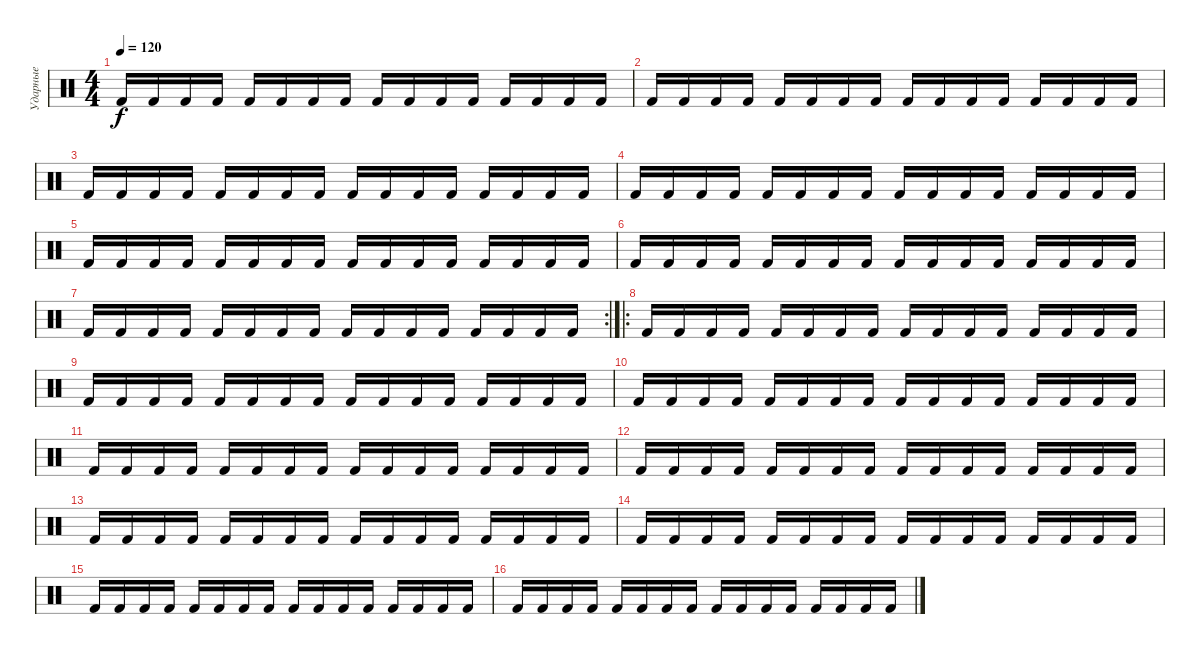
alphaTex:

\track ("Ударные" "Ударные") {instrument percussion}
\staff {score}
\articulation defaults
\ts (4 4)
\tempo 120
\clef neutral
\ks c "Kick (hit) 2".16{dy f} "Kick (hit) 2".16 "Kick (hit) 2".16 "Kick (hit) 2".16 "Kick (hit) 2".16 "Kick (hit) 2".16 "Kick (hit) 2".16 "Kick (hit) 2".16 "Kick (hit) 2".16 "Kick (hit) 2".16 "Kick (hit) 2".16 "Kick (hit) 2".16 "Kick (hit) 2".16 "Kick (hit) 2".16 "Kick (hit) 2".16 "Kick (hit) 2".16
|
"Kick (hit) 2".16 "Kick (hit) 2".16 "Kick (hit) 2".16 "Kick (hit) 2".16 "Kick (hit) 2".16 "Kick (hit) 2".16 "Kick (hit) 2".16 "Kick (hit) 2".16 "Kick (hit) 2".16 "Kick (hit) 2".16 "Kick (hit) 2".16 "Kick (hit) 2".16 "Kick (hit) 2".16 "Kick (hit) 2".16 "Kick (hit) 2".16 "Kick (hit) 2".16 |
"Kick (hit) 2".16 "Kick (hit) 2".16 "Kick (hit) 2".16 "Kick (hit) 2".16 "Kick (hit) 2".16 "Kick (hit) 2".16 "Kick (hit) 2".16 "Kick (hit) 2".16 "Kick (hit) 2".16 "Kick (hit) 2".16 "Kick (hit) 2".16 "Kick (hit) 2".16 "Kick (hit) 2".16 "Kick (hit) 2".16 "Kick (hit) 2".16 "Kick (hit) 2".16 |
"Kick (hit) 2".16 "Kick (hit) 2".16 "Kick (hit) 2".16 "Kick (hit) 2".16 "Kick (hit) 2".16 "Kick (hit) 2".16 "Kick (hit) 2".16 "Kick (hit) 2".16 "Kick (hit) 2".16 "Kick (hit) 2".16 "Kick (hit) 2".16 "Kick (hit) 2".16 "Kick (hit) 2".16 "Kick (hit) 2".16 "Kick (hit) 2".16 "Kick (hit) 2".16 |
"Kick (hit) 2".16 "Kick (hit) 2".16 "Kick (hit) 2".16 "Kick (hit) 2".16 "Kick (hit) 2".16 "Kick (hit) 2".16 "Kick (hit) 2".16 "Kick (hit) 2".16 "Kick (hit) 2".16 "Kick (hit) 2".16 "Kick (hit) 2".16 "Kick (hit) 2".16 "Kick (hit) 2".16 "Kick (hit) 2".16 "Kick (hit) 2".16 "Kick (hit) 2".16 |
"Kick (hit) 2".16 "Kick (hit) 2".16 "Kick (hit) 2".16 "Kick (hit) 2".16 "Kick (hit) 2".16 "Kick (hit) 2".16 "Kick (hit) 2".16 "Kick (hit) 2".16 "Kick (hit) 2".16 "Kick (hit) 2".16 "Kick (hit) 2".16 "Kick (hit) 2".16 "Kick (hit) 2".16 "Kick (hit) 2".16 "Kick (hit) 2".16 "Kick (hit) 2".16 |
\rc 2 "Kick (hit) 2".16 "Kick (hit) 2".16 "Kick (hit) 2".16 "Kick (hit) 2".16 "Kick (hit) 2".16 "Kick (hit) 2".16 "Kick (hit) 2".16 "Kick (hit) 2".16 "Kick (hit) 2".16 "Kick (hit) 2".16 "Kick (hit) 2".16 "Kick (hit) 2".16 "Kick (hit) 2".16 "Kick (hit) 2".16 "Kick (hit) 2".16 "Kick (hit) 2".16
|
\ro "Kick (hit) 2".16 "Kick (hit) 2".16 "Kick (hit) 2".16 "Kick (hit) 2".16 "Kick (hit) 2".16 "Kick (hit) 2".16 "Kick (hit) 2".16 "Kick (hit) 2".16 "Kick (hit) 2".16 "Kick (hit) 2".16 "Kick (hit) 2".16 "Kick (hit) 2".16 "Kick (hit) 2".16 "Kick (hit) 2".16 "Kick (hit) 2".16 "Kick (hit) 2".16
|
"Kick (hit) 2".16 "Kick (hit) 2".16 "Kick (hit) 2".16 "Kick (hit) 2".16 "Kick (hit) 2".16 "Kick (hit) 2".16 "Kick (hit) 2".16 "Kick (hit) 2".16 "Kick (hit) 2".16 "Kick (hit) 2".16 "Kick (hit) 2".16 "Kick (hit) 2".16 "Kick (hit) 2".16 "Kick (hit) 2".16 "Kick (hit) 2".16 "Kick (hit) 2".16 |
"Kick (hit) 2".16 "Kick (hit) 2".16 "Kick (hit) 2".16 "Kick (hit) 2".16 "Kick (hit) 2".16 "Kick (hit) 2".16 "Kick (hit) 2".16 "Kick (hit) 2".16 "Kick (hit) 2".16 "Kick (hit) 2".16 "Kick (hit) 2".16 "Kick (hit) 2".16 "Kick (hit) 2".16 "Kick (hit) 2".16 "Kick (hit) 2".16 "Kick (hit) 2".16 |
"Kick (hit) 2".16 "Kick (hit) 2".16 "Kick (hit) 2".16 "Kick (hit) 2".16 "Kick (hit) 2".16 "Kick (hit) 2".16 "Kick (hit) 2".16 "Kick (hit) 2".16 "Kick (hit) 2".16 "Kick (hit) 2".16 "Kick (hit) 2".16 "Kick (hit) 2".16 "Kick (hit) 2".16 "Kick (hit) 2".16 "Kick (hit) 2".16 "Kick (hit) 2".16 |
"Kick (hit) 2".16 "Kick (hit) 2".16 "Kick (hit) 2".16 "Kick (hit) 2".16 "Kick (hit) 2".16 "Kick (hit) 2".16 "Kick (hit) 2".16 "Kick (hit) 2".16 "Kick (hit) 2".16 "Kick (hit) 2".16 "Kick (hit) 2".16 "Kick (hit) 2".16 "Kick (hit) 2".16 "Kick (hit) 2".16 "Kick (hit) 2".16 "Kick (hit) 2".16 |
"Kick (hit) 2".16 "Kick (hit) 2".16 "Kick (hit) 2".16 "Kick (hit) 2".16 "Kick (hit) 2".16 "Kick (hit) 2".16 "Kick (hit) 2".16 "Kick (hit) 2".16 "Kick (hit) 2".16 "Kick (hit) 2".16 "Kick (hit) 2".16 "Kick (hit) 2".16 "Kick (hit) 2".16 "Kick (hit) 2".16 "Kick (hit) 2".16 "Kick (hit) 2".16 |
"Kick (hit) 2".16 "Kick (hit) 2".16 "Kick (hit) 2".16 "Kick (hit) 2".16 "Kick (hit) 2".16 "Kick (hit) 2".16 "Kick (hit) 2".16 "Kick (hit) 2".16 "Kick (hit) 2".16 "Kick (hit) 2".16 "Kick (hit) 2".16 "Kick (hit) 2".16 "Kick (hit) 2".16 "Kick (hit) 2".16 "Kick (hit) 2".16 "Kick (hit) 2".16 |
"Kick (hit) 2".16 "Kick (hit) 2".16 "Kick (hit) 2".16 "Kick (hit) 2".16 "Kick (hit) 2".16 "Kick (hit) 2".16 "Kick (hit) 2".16 "Kick (hit) 2".16 "Kick (hit) 2".16 "Kick (hit) 2".16 "Kick (hit) 2".16 "Kick (hit) 2".16 "Kick (hit) 2".16 "Kick (hit) 2".16 "Kick (hit) 2".16 "Kick (hit) 2".16 |
"Kick (hit) 2".16 "Kick (hit) 2".16 "Kick (hit) 2".16 "Kick (hit) 2".16 "Kick (hit) 2".16 "Kick (hit) 2".16 "Kick (hit) 2".16 "Kick (hit) 2".16 "Kick (hit) 2".16 "Kick (hit) 2".16 "Kick (hit) 2".16 "Kick (hit) 2".16 "Kick (hit) 2".16 "Kick (hit) 2".16 "Kick (hit) 2".16 "Kick (hit) 2".16
